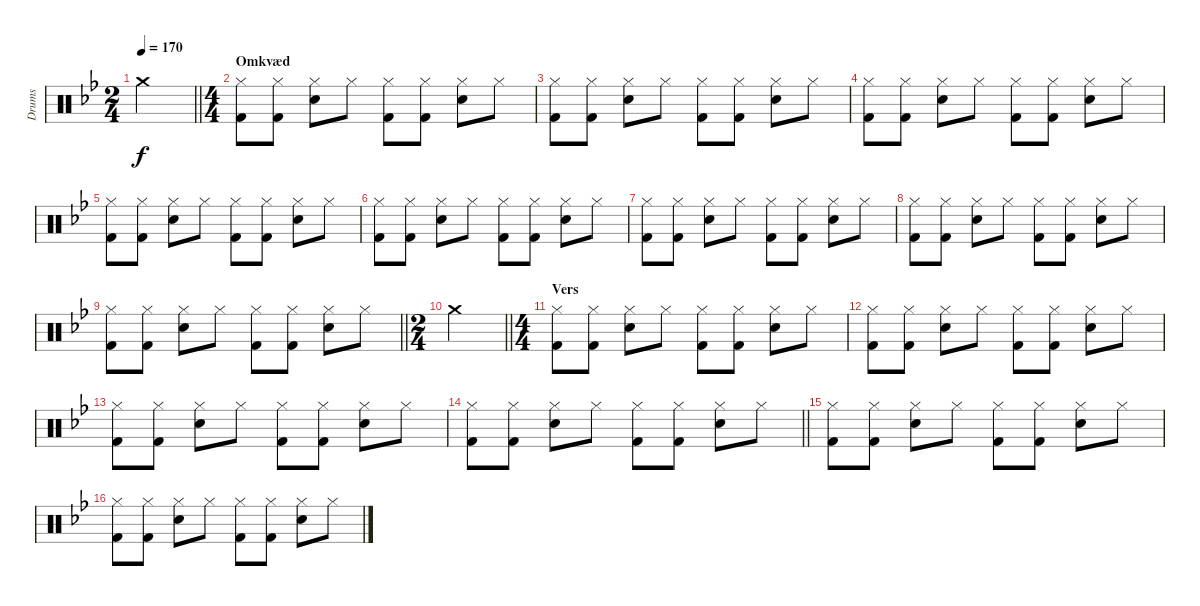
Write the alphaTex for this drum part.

\track ("Drums" "Drums") {instrument percussion}
\staff {score}
\articulation defaults
\ts (2 4)
\tempo 170
\clef neutral
\barLineRight lightlight
\ks bb "Crash medium (hit)".2{dy f}
|
\ts (4 4)
\section ("" "Omkvæd")
("Hi-Hat (closed)" "Kick (hit) 2").8 ("Hi-Hat (closed)" "Kick (hit) 2").8 ("Hi-Hat (closed)" "Snare (hit) 2").8 "Hi-Hat (closed)".8 ("Hi-Hat (closed)" "Kick (hit) 2").8 ("Hi-Hat (closed)" "Kick (hit) 2").8 ("Hi-Hat (closed)" "Snare (hit) 2").8 "Hi-Hat (closed)".8 |
("Hi-Hat (closed)" "Kick (hit) 2").8 ("Hi-Hat (closed)" "Kick (hit) 2").8 ("Hi-Hat (closed)" "Snare (hit) 2").8 "Hi-Hat (closed)".8 ("Hi-Hat (closed)" "Kick (hit) 2").8 ("Hi-Hat (closed)" "Kick (hit) 2").8 ("Hi-Hat (closed)" "Snare (hit) 2").8 "Hi-Hat (closed)".8 |
("Hi-Hat (closed)" "Kick (hit) 2").8 ("Hi-Hat (closed)" "Kick (hit) 2").8 ("Hi-Hat (closed)" "Snare (hit) 2").8 "Hi-Hat (closed)".8 ("Hi-Hat (closed)" "Kick (hit) 2").8 ("Hi-Hat (closed)" "Kick (hit) 2").8 ("Hi-Hat (closed)" "Snare (hit) 2").8 "Hi-Hat (closed)".8 |
("Hi-Hat (closed)" "Kick (hit) 2").8 ("Hi-Hat (closed)" "Kick (hit) 2").8 ("Hi-Hat (closed)" "Snare (hit) 2").8 "Hi-Hat (closed)".8 ("Hi-Hat (closed)" "Kick (hit) 2").8 ("Hi-Hat (closed)" "Kick (hit) 2").8 ("Hi-Hat (closed)" "Snare (hit) 2").8 "Hi-Hat (closed)".8 |
("Hi-Hat (closed)" "Kick (hit) 2").8 ("Hi-Hat (closed)" "Kick (hit) 2").8 ("Hi-Hat (closed)" "Snare (hit) 2").8 "Hi-Hat (closed)".8 ("Hi-Hat (closed)" "Kick (hit) 2").8 ("Hi-Hat (closed)" "Kick (hit) 2").8 ("Hi-Hat (closed)" "Snare (hit) 2").8 "Hi-Hat (closed)".8 |
("Hi-Hat (closed)" "Kick (hit) 2").8 ("Hi-Hat (closed)" "Kick (hit) 2").8 ("Hi-Hat (closed)" "Snare (hit) 2").8 "Hi-Hat (closed)".8 ("Hi-Hat (closed)" "Kick (hit) 2").8 ("Hi-Hat (closed)" "Kick (hit) 2").8 ("Hi-Hat (closed)" "Snare (hit) 2").8 "Hi-Hat (closed)".8 |
("Hi-Hat (closed)" "Kick (hit) 2").8 ("Hi-Hat (closed)" "Kick (hit) 2").8 ("Hi-Hat (closed)" "Snare (hit) 2").8 "Hi-Hat (closed)".8 ("Hi-Hat (closed)" "Kick (hit) 2").8 ("Hi-Hat (closed)" "Kick (hit) 2").8 ("Hi-Hat (closed)" "Snare (hit) 2").8 "Hi-Hat (closed)".8 |
\barLineRight lightlight
("Hi-Hat (closed)" "Kick (hit) 2").8 ("Hi-Hat (closed)" "Kick (hit) 2").8 ("Hi-Hat (closed)" "Snare (hit) 2").8 "Hi-Hat (closed)".8 ("Hi-Hat (closed)" "Kick (hit) 2").8 ("Hi-Hat (closed)" "Kick (hit) 2").8 ("Hi-Hat (closed)" "Snare (hit) 2").8 "Hi-Hat (closed)".8 |
\ts (2 4)
\barLineRight lightlight "Crash medium (hit)".2
|
\ts (4 4)
\section ("" "Vers")
("Hi-Hat (closed)" "Kick (hit) 2").8 ("Hi-Hat (closed)" "Kick (hit) 2").8 ("Hi-Hat (closed)" "Snare (hit) 2").8 "Hi-Hat (closed)".8 ("Hi-Hat (closed)" "Kick (hit) 2").8 ("Hi-Hat (closed)" "Kick (hit) 2").8 ("Hi-Hat (closed)" "Snare (hit) 2").8 "Hi-Hat (closed)".8 |
("Hi-Hat (closed)" "Kick (hit) 2").8 ("Hi-Hat (closed)" "Kick (hit) 2").8 ("Hi-Hat (closed)" "Snare (hit) 2").8 "Hi-Hat (closed)".8 ("Hi-Hat (closed)" "Kick (hit) 2").8 ("Hi-Hat (closed)" "Kick (hit) 2").8 ("Hi-Hat (closed)" "Snare (hit) 2").8 "Hi-Hat (closed)".8 |
("Hi-Hat (closed)" "Kick (hit) 2").8 ("Hi-Hat (closed)" "Kick (hit) 2").8 ("Hi-Hat (closed)" "Snare (hit) 2").8 "Hi-Hat (closed)".8 ("Hi-Hat (closed)" "Kick (hit) 2").8 ("Hi-Hat (closed)" "Kick (hit) 2").8 ("Hi-Hat (closed)" "Snare (hit) 2").8 "Hi-Hat (closed)".8 |
\barLineRight lightlight
("Hi-Hat (closed)" "Kick (hit) 2").8 ("Hi-Hat (closed)" "Kick (hit) 2").8 ("Hi-Hat (closed)" "Snare (hit) 2").8 "Hi-Hat (closed)".8 ("Hi-Hat (closed)" "Kick (hit) 2").8 ("Hi-Hat (closed)" "Kick (hit) 2").8 ("Hi-Hat (closed)" "Snare (hit) 2").8 "Hi-Hat (closed)".8 |
("Hi-Hat (closed)" "Kick (hit) 2").8 ("Hi-Hat (closed)" "Kick (hit) 2").8 ("Hi-Hat (closed)" "Snare (hit) 2").8 "Hi-Hat (closed)".8 ("Hi-Hat (closed)" "Kick (hit) 2").8 ("Hi-Hat (closed)" "Kick (hit) 2").8 ("Hi-Hat (closed)" "Snare (hit) 2").8 "Hi-Hat (closed)".8 |
("Hi-Hat (closed)" "Kick (hit) 2").8 ("Hi-Hat (closed)" "Kick (hit) 2").8 ("Hi-Hat (closed)" "Snare (hit) 2").8 "Hi-Hat (closed)".8 ("Hi-Hat (closed)" "Kick (hit) 2").8 ("Hi-Hat (closed)" "Kick (hit) 2").8 ("Hi-Hat (closed)" "Snare (hit) 2").8 "Hi-Hat (closed)".8
